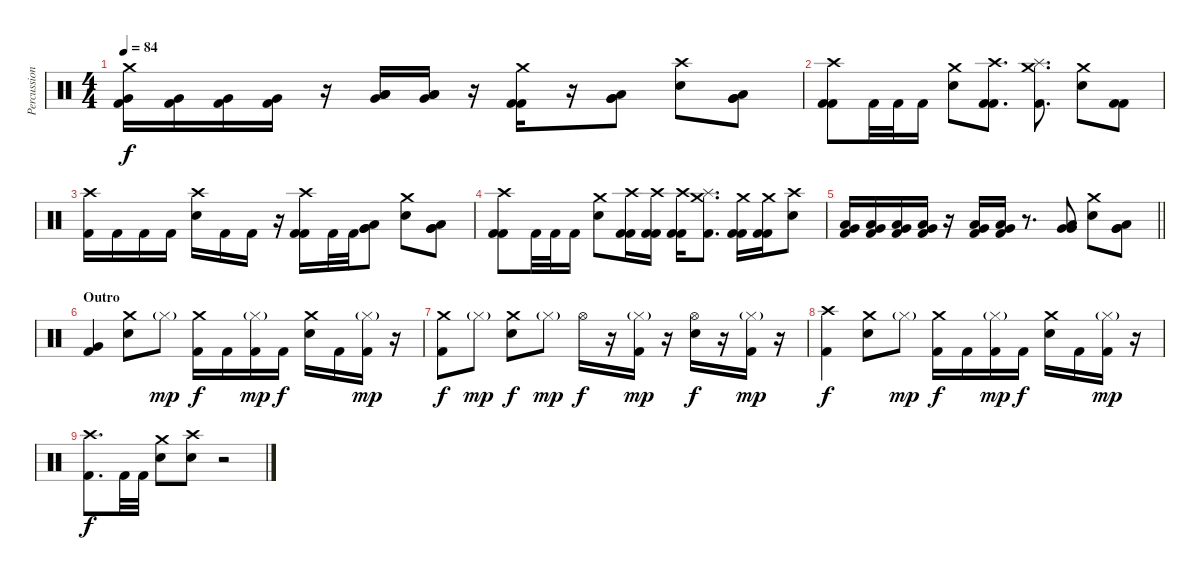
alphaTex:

\track ("Percussion" "Percussion") {instrument percussion}
\staff {score}
\articulation defaults
\ts (4 4)
\tempo 84
\clef neutral
\ks c
("Crash medium (hit)" "Very Low Tom (hit)" "Kick (hit) 2").16{dy f} ("Very Low Tom (hit)" "Kick (hit) 2").16 ("Very Low Tom (hit)" "Kick (hit) 2").16 ("Very Low Tom (hit)" "Kick (hit) 2").16 r.16 ("Very Low Tom (hit)" "Low Tom (hit)" "Low Tom (hit)").16 ("Very Low Tom (hit)" "Low Floor Tom (hit)" "Low Floor Tom (hit)").16 r.16 ("Crash medium (hit)" "Kick (hit) 2" "Kick (hit) 2").16 r.16 ("Low Tom (hit)" "Very Low Tom (hit)" "Very Low Tom (hit)").8 ("Crash high (hit)" "Electric Snare (hit)").8 ("Low Tom (hit)" "Very Low Tom (hit)" "Very Low Tom (hit)").8 |
("Crash high (hit)" "Kick (hit) 2" "Kick (hit) 2").8 "Kick (hit) 2".32 "Kick (hit) 2".32 "Kick (hit) 2".16 ("Crash medium (hit)" "Electric Snare (hit)").8 ("Crash high (hit)" "Kick (hit) 2" "Kick (hit) 2").8{d} ("Splash (hit)" "Crash medium (hit)" "Kick (hit) 2").8{d} ("Crash medium (hit)" "Electric Snare (hit)").8 ("Kick (hit) 2" "Kick (hit) 2").8 |
("Crash high (hit)" "Kick (hit) 2").16 "Kick (hit) 2".16 "Kick (hit) 2".16 "Kick (hit) 2".16 ("Crash high (hit)" "Electric Snare (hit)").16 "Kick (hit) 2".16 "Kick (hit) 2".16 r.16 ("Crash high (hit)" "Kick (hit) 2" "Kick (hit) 2").16 "Kick (hit) 2".32 "Kick (hit) 2".32 ("Low Tom (hit)" "Very Low Tom (hit)" "Very Low Tom (hit)").8 ("Crash medium (hit)" "Electric Snare (hit)").8 ("Low Tom (hit)" "Very Low Tom (hit)" "Very Low Tom (hit)").8 |
("Crash high (hit)" "Kick (hit) 2" "Kick (hit) 2").8 "Kick (hit) 2".32 "Kick (hit) 2".32 "Kick (hit) 2".16 ("Crash medium (hit)" "Electric Snare (hit)").8 ("Crash high (hit)" "Kick (hit) 2" "Kick (hit) 2").16 ("Crash high (hit)" "Kick (hit) 2" "Kick (hit) 2").16 ("Crash high (hit)" "Kick (hit) 2" "Kick (hit) 2").16 ("Splash (hit)" "Crash medium (hit)" "Kick (hit) 2").8{d} ("Crash medium (hit)" "Kick (hit) 2" "Kick (hit) 2").16 ("Crash medium (hit)" "Kick (hit) 2" "Kick (hit) 2").16 ("Crash high (hit)" "Electric Snare (hit)").8 |
\barLineRight lightlight
("Low Tom (hit)" "Very Low Tom (hit)" "Kick (hit) 2").16 ("Low Tom (hit)" "Very Low Tom (hit)" "Kick (hit) 2").16 ("Low Tom (hit)" "Very Low Tom (hit)" "Kick (hit) 2").16 ("Low Tom (hit)" "Very Low Tom (hit)" "Kick (hit) 2").16 r.16 ("Low Tom (hit)" "Very Low Tom (hit)" "Kick (hit) 2").16 ("Low Tom (hit)" "Very Low Tom (hit)" "Kick (hit) 2").16 r.8{d} ("Low Tom (hit)" "Very Low Tom (hit)" "Very Low Tom (hit)").8 ("Crash medium (hit)" "Electric Snare (hit)").8 ("Low Tom (hit)" "Very Low Tom (hit)" "Very Low Tom (hit)").8 |
\section ("" "Outro")
("Very Low Tom (hit)" "Kick (hit) 2").4 ("Crash medium (hit)" "Electric Snare (hit)").8 "Hi-Hat (closed)"{g}.8{dy mp} ("Crash medium (hit)" "Kick (hit) 2").16{dy f} "Kick (hit) 2".16 ("Hi-Hat (closed)"{g} "Kick (hit) 2").16{dy mp} "Kick (hit) 2".16{dy f} ("Crash medium (hit)" "Electric Snare (hit)").16 "Kick (hit) 2".16 ("Hi-Hat (closed)"{g} "Kick (hit) 2").16{dy mp} r.16 |
("Crash medium (hit)" "Kick (hit) 2").8{dy f} "Hi-Hat (closed)"{g}.8{dy mp} ("Crash medium (hit)" "Electric Snare (hit)").8{dy f} "Hi-Hat (closed)"{g}.8{dy mp} "Hi-Hat (open)".16{dy f} r.16 ("Hi-Hat (closed)"{g} "Kick (hit) 2").16{dy mp} r.16 ("Hi-Hat (open)" "Electric Snare (hit)").16{dy f} r.16 ("Hi-Hat (closed)"{g} "Kick (hit) 2").16{dy mp} r.16 |
("Crash high (hit)" "Kick (hit) 2").4{dy f} ("Crash medium (hit)" "Electric Snare (hit)").8 "Hi-Hat (closed)"{g}.8{dy mp} ("Crash medium (hit)" "Kick (hit) 2").16{dy f} "Kick (hit) 2".16 ("Hi-Hat (closed)"{g} "Kick (hit) 2").16{dy mp} "Kick (hit) 2".16{dy f} ("Crash medium (hit)" "Electric Snare (hit)").16 "Kick (hit) 2".16 ("Hi-Hat (closed)"{g} "Kick (hit) 2").16{dy mp} r.16 |
("Crash high (hit)" "Kick (hit) 2").8{d dy f} "Kick (hit) 2".32 "Kick (hit) 2".32 ("Crash medium (hit)" "Electric Snare (hit)").8 ("Crash high (hit)" "Electric Snare (hit)").8 r.2
